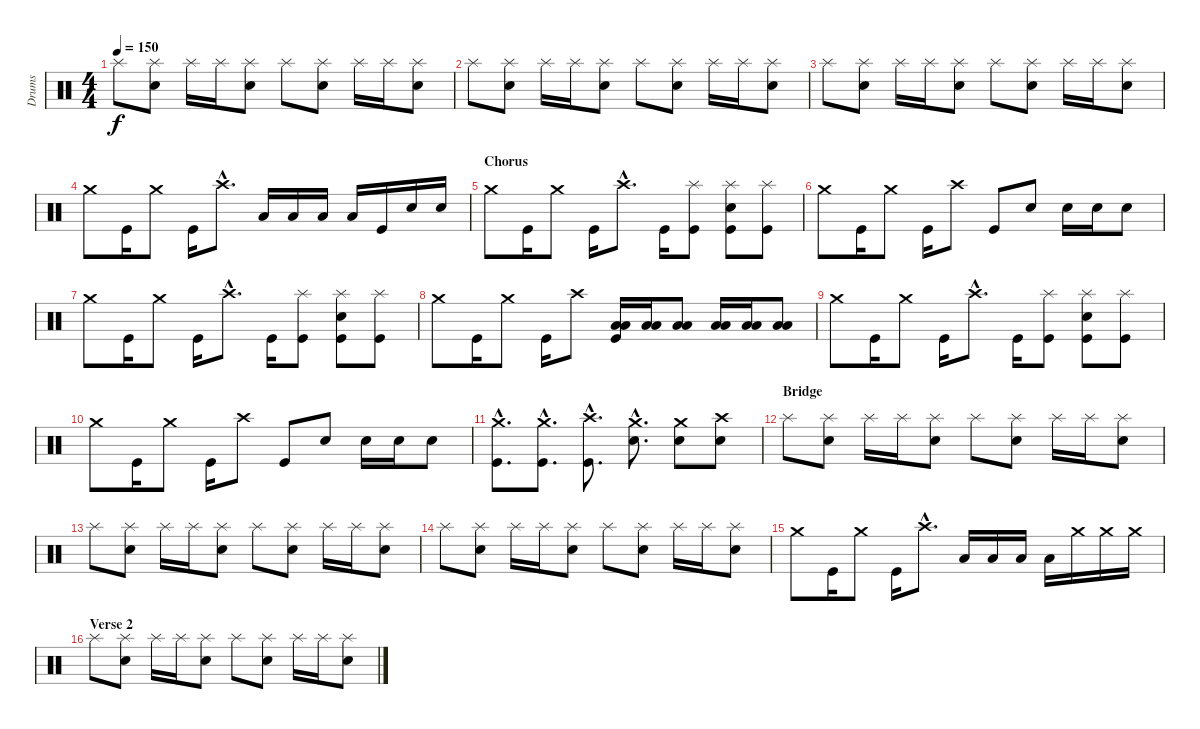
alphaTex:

\track ("Drums" "Drums") {instrument percussion}
\staff {score}
\articulation defaults
\ts (4 4)
\tempo 150
\clef neutral
\ks c "Splash (hit)".8{dy f}
("Splash (hit)" "Snare (hit) 2").8 "Splash (hit)".16 "Splash (hit)".16 ("Splash (hit)" "Snare (hit) 2").8 "Splash (hit)".8 ("Splash (hit)" "Snare (hit) 2").8 "Splash (hit)".16 "Splash (hit)".16 ("Splash (hit)" "Snare (hit) 2").8 |
"Splash (hit)".8 ("Splash (hit)" "Snare (hit) 2").8 "Splash (hit)".16 "Splash (hit)".16 ("Splash (hit)" "Snare (hit) 2").8 "Splash (hit)".8 ("Splash (hit)" "Snare (hit) 2").8 "Splash (hit)".16 "Splash (hit)".16 ("Splash (hit)" "Snare (hit) 2").8 |
"Splash (hit)".8 ("Splash (hit)" "Snare (hit) 2").8 "Splash (hit)".16 "Splash (hit)".16 ("Splash (hit)" "Snare (hit) 2").8 "Splash (hit)".8 ("Splash (hit)" "Snare (hit) 2").8 "Splash (hit)".16 "Splash (hit)".16 ("Splash (hit)" "Snare (hit) 2").8 |
"Crash medium (hit)".8 "Kick (hit)".16 "Crash medium (hit)".8 "Kick (hit)".16 "Crash high (hit)"{hac}.8{d} "Low Tom (hit)".16 "Low Tom (hit)".16 "Low Tom (hit)".16 "Low Tom (hit)".16 "Kick (hit)".16 "Snare (hit) 2".16 "Snare (hit) 2".16 |
\section ("" "Chorus")
"Crash medium (hit)".8 "Kick (hit)".16 "Crash medium (hit)".8 "Kick (hit)".16 "Crash high (hit)"{hac}.8{d} "Kick (hit)".16 ("Splash (hit)" "Kick (hit)").8 ("Splash (hit)" "Snare (hit) 2" "Kick (hit)").8 ("Splash (hit)" "Kick (hit)").8 |
"Crash medium (hit)".8 "Kick (hit)".16 "Crash medium (hit)".8 "Kick (hit)".16 "Crash high (hit)".8 "Kick (hit)".8 "Snare (hit) 2".8 "Snare (hit) 2".16 "Snare (hit) 2".16 "Snare (hit) 2".8 |
"Crash medium (hit)".8 "Kick (hit)".16 "Crash medium (hit)".8 "Kick (hit)".16 "Crash high (hit)"{hac}.8{d} "Kick (hit)".16 ("Splash (hit)" "Kick (hit)").8 ("Splash (hit)" "Snare (hit) 2" "Kick (hit)").8 ("Splash (hit)" "Kick (hit)").8 |
"Crash medium (hit)".8 "Kick (hit)".16 "Crash medium (hit)".8 "Kick (hit)".16 "Crash high (hit)".8 ("Low Tom (hit)" "Low Tom (hit)" "Kick (hit)").16 ("Low Tom (hit)" "Low Tom (hit)").16 ("Low Tom (hit)" "Low Tom (hit)").8 ("Low Tom (hit)" "Low Tom (hit)").16 ("Low Tom (hit)" "Low Tom (hit)").16 ("Low Tom (hit)" "Low Tom (hit)").8 |
"Crash medium (hit)".8 "Kick (hit)".16 "Crash medium (hit)".8 "Kick (hit)".16 "Crash high (hit)"{hac}.8{d} "Kick (hit)".16 ("Splash (hit)" "Kick (hit)").8 ("Splash (hit)" "Snare (hit) 2" "Kick (hit)").8 ("Splash (hit)" "Kick (hit)").8 |
"Crash medium (hit)".8 "Kick (hit)".16 "Crash medium (hit)".8 "Kick (hit)".16 "Crash high (hit)".8 "Kick (hit)".8 "Snare (hit) 2".8 "Snare (hit) 2".16 "Snare (hit) 2".16 "Snare (hit) 2".8 |
("Crash medium (hit)"{hac} "Kick (hit)"{hac}).8{d} ("Crash medium (hit)"{hac} "Kick (hit)"{hac}).8{d} ("Crash high (hit)"{hac} "Kick (hit)"{hac}).8{d} ("Crash medium (hit)"{hac} "Electric Snare (hit)"{hac}).8{d} ("Crash medium (hit)" "Electric Snare (hit)").8 ("Crash high (hit)" "Electric Snare (hit)").8 |
\section ("" "Bridge")
"Splash (hit)".8 ("Splash (hit)" "Snare (hit) 2").8 "Splash (hit)".16 "Splash (hit)".16 ("Splash (hit)" "Snare (hit) 2").8 "Splash (hit)".8 ("Splash (hit)" "Snare (hit) 2").8 "Splash (hit)".16 "Splash (hit)".16 ("Splash (hit)" "Snare (hit) 2").8 |
"Splash (hit)".8 ("Splash (hit)" "Snare (hit) 2").8 "Splash (hit)".16 "Splash (hit)".16 ("Splash (hit)" "Snare (hit) 2").8 "Splash (hit)".8 ("Splash (hit)" "Snare (hit) 2").8 "Splash (hit)".16 "Splash (hit)".16 ("Splash (hit)" "Snare (hit) 2").8 |
"Splash (hit)".8 ("Splash (hit)" "Snare (hit) 2").8 "Splash (hit)".16 "Splash (hit)".16 ("Splash (hit)" "Snare (hit) 2").8 "Splash (hit)".8 ("Splash (hit)" "Snare (hit) 2").8 "Splash (hit)".16 "Splash (hit)".16 ("Splash (hit)" "Snare (hit) 2").8 |
"Crash medium (hit)".8 "Kick (hit)".16 "Crash medium (hit)".8 "Kick (hit)".16 "Crash high (hit)"{hac}.8{d} "Low Tom (hit)".16 "Low Tom (hit)".16 "Low Tom (hit)".16 "Low Tom (hit)".16 "Crash medium (hit)".16 "Crash medium (hit)".16 "Crash medium (hit)".16 |
\section ("" "Verse 2")
"Splash (hit)".8 ("Splash (hit)" "Snare (hit) 2").8 "Splash (hit)".16 "Splash (hit)".16 ("Splash (hit)" "Snare (hit) 2").8 "Splash (hit)".8 ("Splash (hit)" "Snare (hit) 2").8 "Splash (hit)".16 "Splash (hit)".16 ("Splash (hit)" "Snare (hit) 2").8
